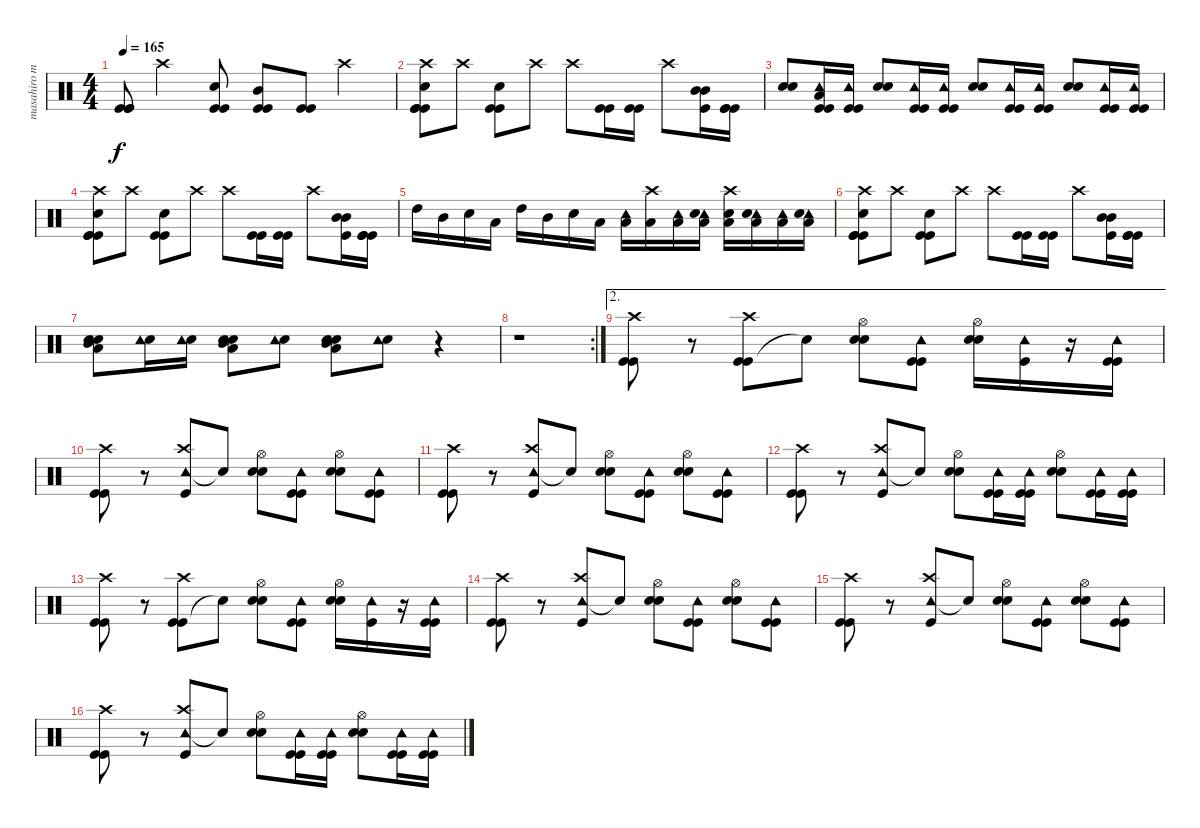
\track ("masahiro muta" "masahiro m") {instrument percussion}
\staff {score}
\articulation defaults
\ts (4 4)
\tempo 165
\clef neutral
\ks c
("Kick (hit)" "Kick (hit)" "Kick (hit)").8{dy f} "Crash high (hit)".4 ("Electric Snare (hit)" "Kick (hit)" "Kick (hit)").8 ("Mid Tom (hit)" "Kick (hit)" "Kick (hit)").8 ("Kick (hit)" "Kick (hit)").8 "Crash high (hit)".4 |
("Crash high (hit)" "Kick (hit)" "Kick (hit)" "Kick (hit)" "Electric Snare (hit)").8 "Crash high (hit)".8 ("Kick (hit)" "Electric Snare (hit)" "Kick (hit)").8 "Crash high (hit)".8 "Crash high (hit)".8 ("Kick (hit)" "Kick (hit)").16 ("Kick (hit)" "Kick (hit)").16 "Crash high (hit)".8 ("Mid Tom (hit)" "Kick (hit)" "Mid Tom (hit)").16 ("Kick (hit)" "Kick (hit)" "Kick (hit)").16 |
("Electric Snare (hit)" "Electric Snare (hit)").8 ("Kick (hit)" "Kick (hit)" "Tambourine (hit)" "Low Tom (hit)").16 ("Kick (hit)" "Tambourine (hit)" "Kick (hit)").16 ("Electric Snare (hit)" "Electric Snare (hit)").8 ("Kick (hit)" "Kick (hit)" "Tambourine (hit)").16 ("Kick (hit)" "Kick (hit)" "Tambourine (hit)").16 ("Electric Snare (hit)" "Electric Snare (hit)").8 ("Kick (hit)" "Kick (hit)" "Tambourine (hit)").16 ("Kick (hit)" "Kick (hit)" "Tambourine (hit)").16 ("Electric Snare (hit)" "Electric Snare (hit)").8 ("Kick (hit)" "Kick (hit)" "Tambourine (hit)").16 ("Kick (hit)" "Kick (hit)" "Tambourine (hit)").16 |
("Crash high (hit)" "Kick (hit)" "Kick (hit)" "Kick (hit)" "Electric Snare (hit)").8 "Crash high (hit)".8 ("Kick (hit)" "Electric Snare (hit)" "Kick (hit)").8 "Crash high (hit)".8 "Crash high (hit)".8 ("Kick (hit)" "Kick (hit)").16 ("Kick (hit)" "Kick (hit)").16 "Crash high (hit)".8 ("Mid Tom (hit)" "Kick (hit)" "Mid Tom (hit)").16 ("Kick (hit)" "Kick (hit)" "Kick (hit)").16 |
"High Tom (hit)".16 "Mid Tom (hit)".16 "Snare (hit) 2".16 "Low Tom (hit)".16 "High Tom (hit)".16 "Mid Tom (hit)".16 "Snare (hit) 2".16 "Low Tom (hit)".16 ("Tambourine (hit)" "Low Tom (hit)").16 ("Crash high (hit)" "Low Tom (hit)").16 ("Tambourine (hit)" "Low Tom (hit)").16 ("Tambourine (hit)" "Low Tom (hit)" "Electric Snare (hit)").16 ("Crash high (hit)" "Low Tom (hit)" "Electric Snare (hit)").16 ("Tambourine (hit)" "Low Tom (hit)" "Electric Snare (hit)").16 ("Tambourine (hit)" "Low Tom (hit)").16 ("Tambourine (hit)" "Low Tom (hit)" "Electric Snare (hit)").16 |
("Crash high (hit)" "Kick (hit)" "Kick (hit)" "Kick (hit)" "Electric Snare (hit)").8 "Crash high (hit)".8 ("Kick (hit)" "Electric Snare (hit)" "Kick (hit)").8 "Crash high (hit)".8 "Crash high (hit)".8 ("Kick (hit)" "Kick (hit)").16 ("Kick (hit)" "Kick (hit)").16 "Crash high (hit)".8 ("Mid Tom (hit)" "Kick (hit)" "Mid Tom (hit)").16 ("Kick (hit)" "Kick (hit)" "Kick (hit)").16 |
("Electric Snare (hit)" "Mid Tom (hit)" "Low Tom (hit)" "Electric Snare (hit)").8 ("Electric Snare (hit)" "Tambourine (hit)").16 ("Electric Snare (hit)" "Tambourine (hit)").16 ("Electric Snare (hit)" "Mid Tom (hit)" "Low Tom (hit)" "Electric Snare (hit)").8 ("Electric Snare (hit)" "Tambourine (hit)").8 ("Electric Snare (hit)" "Low Tom (hit)" "Mid Tom (hit)" "Electric Snare (hit)").8 ("Electric Snare (hit)" "Tambourine (hit)").8 r.4 |
\rc 2
r.1 |
\ae 2
("Kick (hit)" "Crash high (hit)" "Kick (hit)").8 r.8 ("Kick (hit)" "Crash high (hit)" "Kick (hit)").8 "Snare (hit)"{t}.8 ("Electric Snare (hit)" "Hi-Hat (open)" "Electric Snare (hit)").8 ("Kick (hit)" "Tambourine (hit)" "Kick (hit)").8 ("Electric Snare (hit)" "Hi-Hat (open)" "Electric Snare (hit)").16 ("Kick (hit)" "Tambourine (hit)").16 r.16 ("Tambourine (hit)" "Kick (hit)" "Kick (hit)").16 |
("Kick (hit)" "Kick (hit)" "Crash high (hit)").8 r.8 ("Tambourine (hit)" "Kick (hit)" "Crash high (hit)").8 "Snare (hit)"{t}.8 ("Electric Snare (hit)" "Hi-Hat (open)" "Electric Snare (hit)").8 ("Kick (hit)" "Tambourine (hit)" "Kick (hit)").8 ("Hi-Hat (open)" "Electric Snare (hit)" "Electric Snare (hit)").8 ("Kick (hit)" "Tambourine (hit)" "Kick (hit)").8 |
("Kick (hit)" "Kick (hit)" "Crash high (hit)").8 r.8 ("Tambourine (hit)" "Kick (hit)" "Crash high (hit)").8 "Snare (hit)"{t}.8 ("Electric Snare (hit)" "Hi-Hat (open)" "Electric Snare (hit)").8 ("Kick (hit)" "Tambourine (hit)" "Kick (hit)").8 ("Hi-Hat (open)" "Electric Snare (hit)" "Electric Snare (hit)").8 ("Kick (hit)" "Tambourine (hit)" "Kick (hit)").8 |
("Kick (hit)" "Kick (hit)" "Crash high (hit)").8 r.8 ("Tambourine (hit)" "Kick (hit)" "Crash high (hit)").8 "Snare (hit)"{t}.8 ("Electric Snare (hit)" "Hi-Hat (open)" "Electric Snare (hit)").8 ("Tambourine (hit)" "Kick (hit)" "Kick (hit)").16 ("Kick (hit)" "Tambourine (hit)" "Kick (hit)").16 ("Hi-Hat (open)" "Electric Snare (hit)" "Electric Snare (hit)").8 ("Kick (hit)" "Tambourine (hit)" "Kick (hit)").16 ("Kick (hit)" "Tambourine (hit)" "Kick (hit)").16 |
("Kick (hit)" "Crash high (hit)" "Kick (hit)").8 r.8 ("Kick (hit)" "Crash high (hit)" "Kick (hit)").8 "Snare (hit)"{t}.8 ("Electric Snare (hit)" "Hi-Hat (open)" "Electric Snare (hit)").8 ("Kick (hit)" "Tambourine (hit)" "Kick (hit)").8 ("Electric Snare (hit)" "Hi-Hat (open)" "Electric Snare (hit)").16 ("Kick (hit)" "Tambourine (hit)").16 r.16 ("Tambourine (hit)" "Kick (hit)" "Kick (hit)").16 |
("Kick (hit)" "Kick (hit)" "Crash high (hit)").8 r.8 ("Tambourine (hit)" "Kick (hit)" "Crash high (hit)").8 "Snare (hit)"{t}.8 ("Electric Snare (hit)" "Hi-Hat (open)" "Electric Snare (hit)").8 ("Kick (hit)" "Tambourine (hit)" "Kick (hit)").8 ("Hi-Hat (open)" "Electric Snare (hit)" "Electric Snare (hit)").8 ("Kick (hit)" "Tambourine (hit)" "Kick (hit)").8 |
("Kick (hit)" "Kick (hit)" "Crash high (hit)").8 r.8 ("Tambourine (hit)" "Kick (hit)" "Crash high (hit)").8 "Snare (hit)"{t}.8 ("Electric Snare (hit)" "Hi-Hat (open)" "Electric Snare (hit)").8 ("Kick (hit)" "Tambourine (hit)" "Kick (hit)").8 ("Hi-Hat (open)" "Electric Snare (hit)" "Electric Snare (hit)").8 ("Kick (hit)" "Tambourine (hit)" "Kick (hit)").8 |
("Kick (hit)" "Kick (hit)" "Crash high (hit)").8 r.8 ("Tambourine (hit)" "Kick (hit)" "Crash high (hit)").8 "Snare (hit)"{t}.8 ("Electric Snare (hit)" "Hi-Hat (open)" "Electric Snare (hit)").8 ("Tambourine (hit)" "Kick (hit)" "Kick (hit)").16 ("Kick (hit)" "Tambourine (hit)" "Kick (hit)").16 ("Hi-Hat (open)" "Electric Snare (hit)" "Electric Snare (hit)").8 ("Kick (hit)" "Tambourine (hit)" "Kick (hit)").16 ("Kick (hit)" "Tambourine (hit)" "Kick (hit)").16
